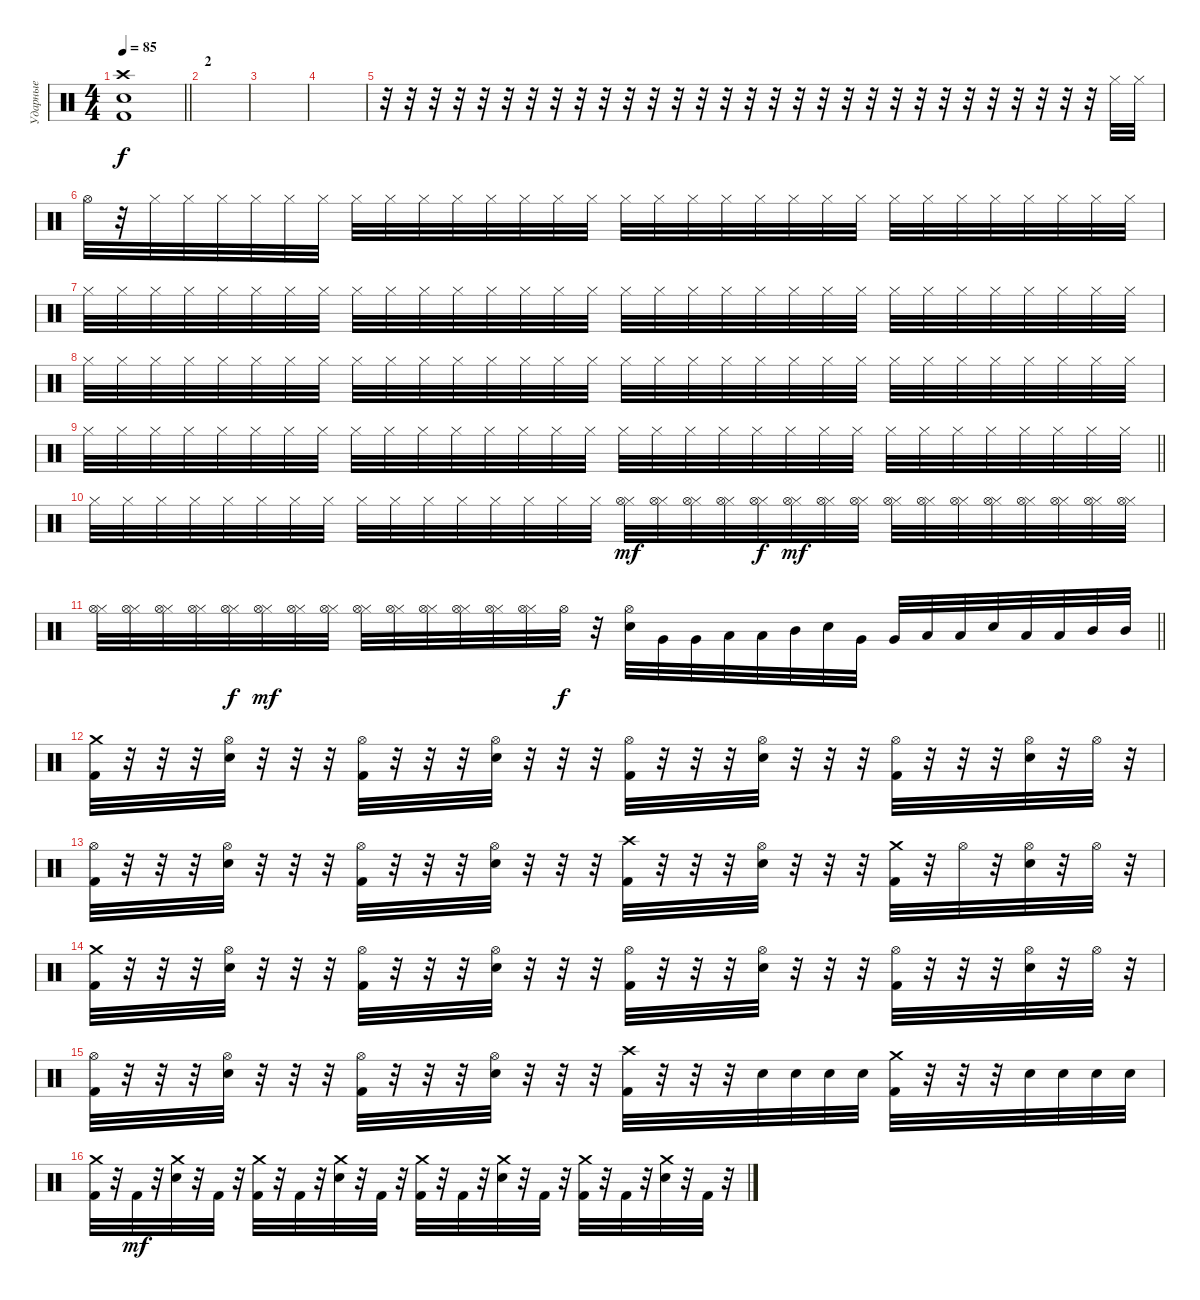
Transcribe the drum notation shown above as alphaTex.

\track ("Ударные" "Ударные") {instrument percussion}
\staff {score}
\articulation defaults
\ts (4 4)
\tempo 85
\clef neutral
\barLineRight lightlight
\ks c
("Crash high (hit)" "Electric Snare (hit)" "Kick (hit) 2").1{dy f} |
\section ("" "2")
|
|
|
r.32 r.32 r.32 r.32 r.32 r.32 r.32 r.32 r.32 r.32 r.32 r.32 r.32 r.32 r.32 r.32 r.32 r.32 r.32 r.32 r.32 r.32 r.32 r.32 r.32 r.32 r.32 r.32 r.32 r.32 "Hi-Hat (closed)".32 "Hi-Hat (closed)".32 |
"Hi-Hat (open)".32 r.32 "Hi-Hat (closed)".32 "Hi-Hat (closed)".32 "Hi-Hat (closed)".32 "Hi-Hat (closed)".32 "Hi-Hat (closed)".32 "Hi-Hat (closed)".32 "Hi-Hat (closed)".32 "Hi-Hat (closed)".32 "Hi-Hat (closed)".32 "Hi-Hat (closed)".32 "Hi-Hat (closed)".32 "Hi-Hat (closed)".32 "Hi-Hat (closed)".32 "Hi-Hat (closed)".32 "Hi-Hat (closed)".32 "Hi-Hat (closed)".32 "Hi-Hat (closed)".32 "Hi-Hat (closed)".32 "Hi-Hat (closed)".32 "Hi-Hat (closed)".32 "Hi-Hat (closed)".32 "Hi-Hat (closed)".32 "Hi-Hat (closed)".32 "Hi-Hat (closed)".32 "Hi-Hat (closed)".32 "Hi-Hat (closed)".32 "Hi-Hat (closed)".32 "Hi-Hat (closed)".32 "Hi-Hat (closed)".32 "Hi-Hat (closed)".32 |
"Hi-Hat (closed)".32 "Hi-Hat (closed)".32 "Hi-Hat (closed)".32 "Hi-Hat (closed)".32 "Hi-Hat (closed)".32 "Hi-Hat (closed)".32 "Hi-Hat (closed)".32 "Hi-Hat (closed)".32 "Hi-Hat (closed)".32 "Hi-Hat (closed)".32 "Hi-Hat (closed)".32 "Hi-Hat (closed)".32 "Hi-Hat (closed)".32 "Hi-Hat (closed)".32 "Hi-Hat (closed)".32 "Hi-Hat (closed)".32 "Hi-Hat (closed)".32 "Hi-Hat (closed)".32 "Hi-Hat (closed)".32 "Hi-Hat (closed)".32 "Hi-Hat (closed)".32 "Hi-Hat (closed)".32 "Hi-Hat (closed)".32 "Hi-Hat (closed)".32 "Hi-Hat (closed)".32 "Hi-Hat (closed)".32 "Hi-Hat (closed)".32 "Hi-Hat (closed)".32 "Hi-Hat (closed)".32 "Hi-Hat (closed)".32 "Hi-Hat (closed)".32 "Hi-Hat (closed)".32 |
"Hi-Hat (closed)".32 "Hi-Hat (closed)".32 "Hi-Hat (closed)".32 "Hi-Hat (closed)".32 "Hi-Hat (closed)".32 "Hi-Hat (closed)".32 "Hi-Hat (closed)".32 "Hi-Hat (closed)".32 "Hi-Hat (closed)".32 "Hi-Hat (closed)".32 "Hi-Hat (closed)".32 "Hi-Hat (closed)".32 "Hi-Hat (closed)".32 "Hi-Hat (closed)".32 "Hi-Hat (closed)".32 "Hi-Hat (closed)".32 "Hi-Hat (closed)".32 "Hi-Hat (closed)".32 "Hi-Hat (closed)".32 "Hi-Hat (closed)".32 "Hi-Hat (closed)".32 "Hi-Hat (closed)".32 "Hi-Hat (closed)".32 "Hi-Hat (closed)".32 "Hi-Hat (closed)".32 "Hi-Hat (closed)".32 "Hi-Hat (closed)".32 "Hi-Hat (closed)".32 "Hi-Hat (closed)".32 "Hi-Hat (closed)".32 "Hi-Hat (closed)".32 "Hi-Hat (closed)".32 |
\barLineRight lightlight "Hi-Hat (closed)".32 "Hi-Hat (closed)".32 "Hi-Hat (closed)".32 "Hi-Hat (closed)".32 "Hi-Hat (closed)".32 "Hi-Hat (closed)".32 "Hi-Hat (closed)".32 "Hi-Hat (closed)".32 "Hi-Hat (closed)".32 "Hi-Hat (closed)".32 "Hi-Hat (closed)".32 "Hi-Hat (closed)".32 "Hi-Hat (closed)".32 "Hi-Hat (closed)".32 "Hi-Hat (closed)".32 "Hi-Hat (closed)".32 "Hi-Hat (closed)".32 "Hi-Hat (closed)".32 "Hi-Hat (closed)".32 "Hi-Hat (closed)".32 "Hi-Hat (closed)".32 "Hi-Hat (closed)".32 "Hi-Hat (closed)".32 "Hi-Hat (closed)".32 "Hi-Hat (closed)".32 "Hi-Hat (closed)".32 "Hi-Hat (closed)".32 "Hi-Hat (closed)".32 "Hi-Hat (closed)".32 "Hi-Hat (closed)".32 "Hi-Hat (closed)".32 "Hi-Hat (closed)".32
|
"Hi-Hat (closed)".32 "Hi-Hat (closed)".32 "Hi-Hat (closed)".32 "Hi-Hat (closed)".32 "Hi-Hat (closed)".32 "Hi-Hat (closed)".32 "Hi-Hat (closed)".32 "Hi-Hat (closed)".32 "Hi-Hat (closed)".32 "Hi-Hat (closed)".32 "Hi-Hat (closed)".32 "Hi-Hat (closed)".32 "Hi-Hat (closed)".32 "Hi-Hat (closed)".32 "Hi-Hat (closed)".32 "Hi-Hat (closed)".32 ("Hi-Hat (closed)" "Hi-Hat (open)").32{dy mf} ("Hi-Hat (closed)" "Hi-Hat (open)").32 ("Hi-Hat (closed)" "Hi-Hat (open)").32 ("Hi-Hat (closed)" "Hi-Hat (open)").32 ("Hi-Hat (closed)" "Hi-Hat (open)").32{dy f} ("Hi-Hat (closed)" "Hi-Hat (open)").32{dy mf} ("Hi-Hat (closed)" "Hi-Hat (open)").32 ("Hi-Hat (closed)" "Hi-Hat (open)").32 ("Hi-Hat (closed)" "Hi-Hat (open)").32 ("Hi-Hat (closed)" "Hi-Hat (open)").32 ("Hi-Hat (closed)" "Hi-Hat (open)").32 ("Hi-Hat (closed)" "Hi-Hat (open)").32 ("Hi-Hat (closed)" "Hi-Hat (open)").32 ("Hi-Hat (closed)" "Hi-Hat (open)").32 ("Hi-Hat (closed)" "Hi-Hat (open)").32 ("Hi-Hat (closed)" "Hi-Hat (open)").32 |
\barLineRight lightlight
("Hi-Hat (closed)" "Hi-Hat (open)").32 ("Hi-Hat (closed)" "Hi-Hat (open)").32 ("Hi-Hat (closed)" "Hi-Hat (open)").32 ("Hi-Hat (closed)" "Hi-Hat (open)").32 ("Hi-Hat (closed)" "Hi-Hat (open)").32{dy f} ("Hi-Hat (closed)" "Hi-Hat (open)").32{dy mf} ("Hi-Hat (closed)" "Hi-Hat (open)").32 ("Hi-Hat (closed)" "Hi-Hat (open)").32 ("Hi-Hat (closed)" "Hi-Hat (open)").32 ("Hi-Hat (closed)" "Hi-Hat (open)").32 ("Hi-Hat (closed)" "Hi-Hat (open)").32 ("Hi-Hat (closed)" "Hi-Hat (open)").32 ("Hi-Hat (closed)" "Hi-Hat (open)").32 ("Hi-Hat (closed)" "Hi-Hat (open)").32 "Hi-Hat (open)".32{dy f} r.32 ("Hi-Hat (open)" "Electric Snare (hit)").32 "Very Low Tom (hit)".32 "Very Low Tom (hit)".32 "Low Tom (hit)".32 "Low Tom (hit)".32 "Mid Tom (hit)".32 "Electric Snare (hit)".32 "Very Low Tom (hit)".32 "Very Low Tom (hit)".32 "Low Tom (hit)".32 "Low Tom (hit)".32 "Electric Snare (hit)".32 "Low Tom (hit)".32 "Low Tom (hit)".32 "Mid Tom (hit)".32 "Mid Tom (hit)".32 |
("Crash medium (hit)" "Kick (hit) 2").32 r.32 r.32 r.32 ("Hi-Hat (open)" "Electric Snare (hit)").32 r.32 r.32 r.32 ("Hi-Hat (open)" "Kick (hit) 2").32 r.32 r.32 r.32 ("Hi-Hat (open)" "Electric Snare (hit)").32 r.32 r.32 r.32 ("Hi-Hat (open)" "Kick (hit) 2").32 r.32 r.32 r.32 ("Hi-Hat (open)" "Electric Snare (hit)").32 r.32 r.32 r.32 ("Hi-Hat (open)" "Kick (hit) 2").32 r.32 r.32 r.32 ("Hi-Hat (open)" "Electric Snare (hit)").32 r.32 "Hi-Hat (open)".32 r.32 |
("Hi-Hat (open)" "Kick (hit) 2").32 r.32 r.32 r.32 ("Hi-Hat (open)" "Electric Snare (hit)").32 r.32 r.32 r.32 ("Hi-Hat (open)" "Kick (hit) 2").32 r.32 r.32 r.32 ("Hi-Hat (open)" "Electric Snare (hit)").32 r.32 r.32 r.32 ("Crash high (hit)" "Kick (hit) 2").32 r.32 r.32 r.32 ("Hi-Hat (open)" "Electric Snare (hit)").32 r.32 r.32 r.32 ("Crash medium (hit)" "Kick (hit) 2").32 r.32 "Hi-Hat (open)".32 r.32 ("Hi-Hat (open)" "Electric Snare (hit)").32 r.32 "Hi-Hat (open)".32 r.32 |
("Crash medium (hit)" "Kick (hit) 2").32 r.32 r.32 r.32 ("Hi-Hat (open)" "Electric Snare (hit)").32 r.32 r.32 r.32 ("Hi-Hat (open)" "Kick (hit) 2").32 r.32 r.32 r.32 ("Hi-Hat (open)" "Electric Snare (hit)").32 r.32 r.32 r.32 ("Hi-Hat (open)" "Kick (hit) 2").32 r.32 r.32 r.32 ("Hi-Hat (open)" "Electric Snare (hit)").32 r.32 r.32 r.32 ("Hi-Hat (open)" "Kick (hit) 2").32 r.32 r.32 r.32 ("Hi-Hat (open)" "Electric Snare (hit)").32 r.32 "Hi-Hat (open)".32 r.32 |
("Hi-Hat (open)" "Kick (hit) 2").32 r.32 r.32 r.32 ("Hi-Hat (open)" "Electric Snare (hit)").32 r.32 r.32 r.32 ("Hi-Hat (open)" "Kick (hit) 2").32 r.32 r.32 r.32 ("Hi-Hat (open)" "Electric Snare (hit)").32 r.32 r.32 r.32 ("Crash high (hit)" "Kick (hit) 2").32 r.32 r.32 r.32 "Electric Snare (hit)".32 "Electric Snare (hit)".32 "Electric Snare (hit)".32 "Electric Snare (hit)".32 ("Crash medium (hit)" "Kick (hit) 2").32 r.32 r.32 r.32 "Electric Snare (hit)".32 "Electric Snare (hit)".32 "Electric Snare (hit)".32 "Electric Snare (hit)".32 |
("Crash medium (hit)" "Kick (hit) 2").32 r.32 "Kick (hit) 2".32{dy mf} r.32 ("Crash medium (hit)" "Electric Snare (hit)").32 r.32 "Kick (hit) 2".32 r.32 ("Crash medium (hit)" "Kick (hit) 2").32 r.32 "Kick (hit) 2".32 r.32 ("Crash medium (hit)" "Electric Snare (hit)").32 r.32 "Kick (hit) 2".32 r.32 ("Crash medium (hit)" "Kick (hit) 2").32 r.32 "Kick (hit) 2".32 r.32 ("Crash medium (hit)" "Electric Snare (hit)").32 r.32 "Kick (hit) 2".32 r.32 ("Crash medium (hit)" "Kick (hit) 2").32 r.32 "Kick (hit) 2".32 r.32 ("Crash medium (hit)" "Electric Snare (hit)").32 r.32 "Kick (hit) 2".32 r.32
